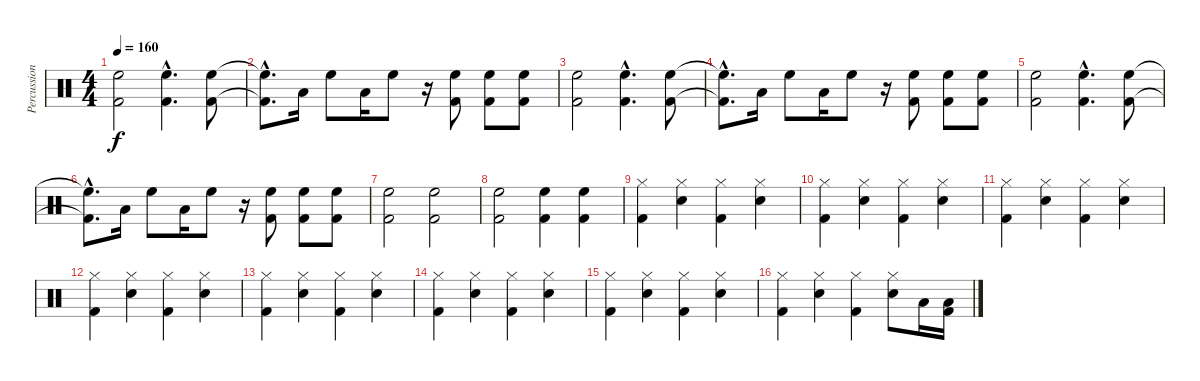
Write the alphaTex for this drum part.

\track ("Percussions" "Percussion") {instrument percussion}
\staff {score}
\articulation defaults
\ts (4 4)
\tempo 160
\clef neutral
\ks c
("High Floor Tom (hit)" "Kick (hit) 2").2{dy f} ("High Floor Tom (hit)"{hac} "Kick (hit) 2"{hac}).4{d} ("High Floor Tom (hit)" "Kick (hit) 2").8 |
("High Floor Tom (hit)"{hac t} "Kick (hit) 2"{hac t}).8{d} "Low Floor Tom (hit)".16 "High Floor Tom (hit)".8 "Low Floor Tom (hit)".16 "High Floor Tom (hit)".8 r.16 ("High Floor Tom (hit)" "Kick (hit) 2").8 ("High Floor Tom (hit)" "Kick (hit) 2").8 ("High Floor Tom (hit)" "Kick (hit) 2").8 |
("High Floor Tom (hit)" "Kick (hit) 2").2 ("High Floor Tom (hit)"{hac} "Kick (hit) 2"{hac}).4{d} ("High Floor Tom (hit)" "Kick (hit) 2").8 |
("High Floor Tom (hit)"{hac t} "Kick (hit) 2"{hac t}).8{d} "Low Floor Tom (hit)".16 "High Floor Tom (hit)".8 "Low Floor Tom (hit)".16 "High Floor Tom (hit)".8 r.16 ("High Floor Tom (hit)" "Kick (hit) 2").8 ("High Floor Tom (hit)" "Kick (hit) 2").8 ("High Floor Tom (hit)" "Kick (hit) 2").8 |
("High Floor Tom (hit)" "Kick (hit) 2").2 ("High Floor Tom (hit)"{hac} "Kick (hit) 2"{hac}).4{d} ("High Floor Tom (hit)" "Kick (hit) 2").8 |
("High Floor Tom (hit)"{hac t} "Kick (hit) 2"{hac t}).8{d} "Low Floor Tom (hit)".16 "High Floor Tom (hit)".8 "Low Floor Tom (hit)".16 "High Floor Tom (hit)".8 r.16 ("High Floor Tom (hit)" "Kick (hit) 2").8 ("High Floor Tom (hit)" "Kick (hit) 2").8 ("High Floor Tom (hit)" "Kick (hit) 2").8 |
("High Floor Tom (hit)" "Kick (hit) 2").2 ("High Floor Tom (hit)" "Kick (hit) 2").2 |
("High Floor Tom (hit)" "Kick (hit) 2").2 ("High Floor Tom (hit)" "Kick (hit) 2").4 ("High Floor Tom (hit)" "Kick (hit) 2").4 |
("Hi-Hat (closed)" "Kick (hit) 2").4 ("Hi-Hat (closed)" "Snare (hit) 2").4 ("Hi-Hat (closed)" "Kick (hit) 2").4 ("Hi-Hat (closed)" "Snare (hit) 2").4 |
("Hi-Hat (closed)" "Kick (hit) 2").4 ("Hi-Hat (closed)" "Snare (hit) 2").4 ("Hi-Hat (closed)" "Kick (hit) 2").4 ("Hi-Hat (closed)" "Snare (hit) 2").4 |
("Hi-Hat (closed)" "Kick (hit) 2").4 ("Hi-Hat (closed)" "Snare (hit) 2").4 ("Hi-Hat (closed)" "Kick (hit) 2").4 ("Hi-Hat (closed)" "Snare (hit) 2").4 |
("Hi-Hat (closed)" "Kick (hit) 2").4 ("Hi-Hat (closed)" "Snare (hit) 2").4 ("Hi-Hat (closed)" "Kick (hit) 2").4 ("Hi-Hat (closed)" "Snare (hit) 2").4 |
("Hi-Hat (closed)" "Kick (hit) 2").4 ("Hi-Hat (closed)" "Snare (hit) 2").4 ("Hi-Hat (closed)" "Kick (hit) 2").4 ("Hi-Hat (closed)" "Snare (hit) 2").4 |
("Hi-Hat (closed)" "Kick (hit) 2").4 ("Hi-Hat (closed)" "Snare (hit) 2").4 ("Hi-Hat (closed)" "Kick (hit) 2").4 ("Hi-Hat (closed)" "Snare (hit) 2").4 |
("Hi-Hat (closed)" "Kick (hit) 2").4 ("Hi-Hat (closed)" "Snare (hit) 2").4 ("Hi-Hat (closed)" "Kick (hit) 2").4 ("Hi-Hat (closed)" "Snare (hit) 2").4 |
("Hi-Hat (closed)" "Kick (hit) 2").4 ("Hi-Hat (closed)" "Snare (hit) 2").4 ("Hi-Hat (closed)" "Kick (hit) 2").4 ("Hi-Hat (closed)" "Snare (hit) 2").8 "Low Tom (hit)".16 ("Low Floor Tom (hit)" "Kick (hit) 2").16
